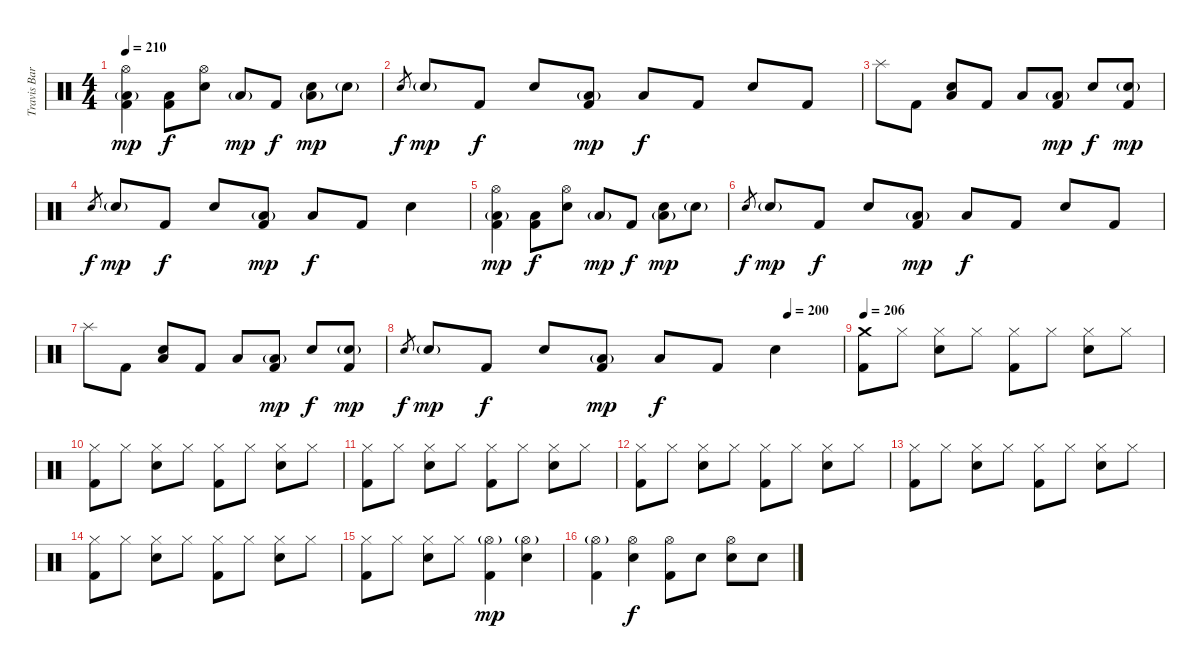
\track ("Travis Barker - Drums" "Travis Bar") {instrument percussion}
\staff {score}
\articulation defaults
\ts (4 4)
\tempo 210
\clef neutral
\ks c
("Hi-Hat (open)" "Low Floor Tom (hit)"{g} "Kick (hit) 2").4{dy mp} ("Low Floor Tom (hit)" "Kick (hit) 2").8{dy f} ("Hi-Hat (open)" "Electric Snare (hit)").8 "Low Floor Tom (hit)"{g}.8{dy mp} "Kick (hit) 2".8{dy f} ("Electric Snare (hit)" "Low Floor Tom (hit)"{g}).8{dy mp} "Electric Snare (hit)"{g}.8 |
"Electric Snare (hit)"{x}.8{gr dy f} "Electric Snare (hit)"{g}.8{dy mp} "Kick (hit) 2".8{dy f} "Electric Snare (hit)".8 ("Low Floor Tom (hit)"{g} "Kick (hit) 2").8{dy mp} "Low Floor Tom (hit)".8{dy f} "Kick (hit) 2".8 "Electric Snare (hit)".8 "Kick (hit) 2".8 |
"Splash (hit)".8 "Kick (hit) 2".8 ("Low Floor Tom (hit)" "Electric Snare (hit)").8 "Kick (hit) 2".8 "Low Floor Tom (hit)".8 ("Low Floor Tom (hit)"{g} "Kick (hit) 2").8{dy mp} "Electric Snare (hit)".8{dy f} ("Electric Snare (hit)"{g} "Kick (hit) 2").8{dy mp} |
"Electric Snare (hit)"{x}.8{gr dy f} "Electric Snare (hit)"{g}.8{dy mp} "Kick (hit) 2".8{dy f} "Electric Snare (hit)".8 ("Low Floor Tom (hit)"{g} "Kick (hit) 2").8{dy mp} "Low Floor Tom (hit)".8{dy f} "Kick (hit) 2".8 "Electric Snare (hit)".4 |
("Hi-Hat (open)" "Low Floor Tom (hit)"{g} "Kick (hit) 2").4{dy mp volume 12 balance 8} ("Low Floor Tom (hit)" "Kick (hit) 2").8{dy f} ("Hi-Hat (open)" "Electric Snare (hit)").8 "Low Floor Tom (hit)"{g}.8{dy mp} "Kick (hit) 2".8{dy f} ("Electric Snare (hit)" "Low Floor Tom (hit)"{g}).8{dy mp} "Electric Snare (hit)"{g}.8 |
"Electric Snare (hit)"{x}.8{gr dy f} "Electric Snare (hit)"{g}.8{dy mp} "Kick (hit) 2".8{dy f} "Electric Snare (hit)".8 ("Low Floor Tom (hit)"{g} "Kick (hit) 2").8{dy mp} "Low Floor Tom (hit)".8{dy f} "Kick (hit) 2".8 "Electric Snare (hit)".8 "Kick (hit) 2".8 |
"Splash (hit)".8 "Kick (hit) 2".8 ("Low Floor Tom (hit)" "Electric Snare (hit)").8 "Kick (hit) 2".8 "Low Floor Tom (hit)".8 ("Low Floor Tom (hit)"{g} "Kick (hit) 2").8{dy mp} "Electric Snare (hit)".8{dy f} ("Electric Snare (hit)"{g} "Kick (hit) 2").8{dy mp} |
\tempo (200 0.875)
"Electric Snare (hit)"{x}.8{gr dy f} "Electric Snare (hit)"{g}.8{dy mp} "Kick (hit) 2".8{dy f} "Electric Snare (hit)".8 ("Low Floor Tom (hit)"{g} "Kick (hit) 2").8{dy mp} "Low Floor Tom (hit)".8{dy f} "Kick (hit) 2".8 "Electric Snare (hit)".4 |
\tempo 206
("Crash medium (hit)" "Kick (hit) 2").8 "Hi-Hat (closed)".8 ("Hi-Hat (closed)" "Electric Snare (hit)").8 "Hi-Hat (closed)".8 ("Hi-Hat (closed)" "Kick (hit) 2").8 "Hi-Hat (closed)".8 ("Hi-Hat (closed)" "Electric Snare (hit)").8 "Hi-Hat (closed)".8 |
("Hi-Hat (closed)" "Kick (hit) 2").8 "Hi-Hat (closed)".8 ("Hi-Hat (closed)" "Electric Snare (hit)").8 "Hi-Hat (closed)".8 ("Hi-Hat (closed)" "Kick (hit) 2").8 "Hi-Hat (closed)".8 ("Hi-Hat (closed)" "Electric Snare (hit)").8 "Hi-Hat (closed)".8 |
("Hi-Hat (closed)" "Kick (hit) 2").8 "Hi-Hat (closed)".8 ("Hi-Hat (closed)" "Electric Snare (hit)").8 "Hi-Hat (closed)".8 ("Hi-Hat (closed)" "Kick (hit) 2").8 "Hi-Hat (closed)".8 ("Hi-Hat (closed)" "Electric Snare (hit)").8 "Hi-Hat (closed)".8 |
("Hi-Hat (closed)" "Kick (hit) 2").8 "Hi-Hat (closed)".8 ("Hi-Hat (closed)" "Electric Snare (hit)").8 "Hi-Hat (closed)".8 ("Hi-Hat (closed)" "Kick (hit) 2").8 "Hi-Hat (closed)".8 ("Hi-Hat (closed)" "Electric Snare (hit)").8 "Hi-Hat (closed)".8 |
("Hi-Hat (closed)" "Kick (hit) 2").8 "Hi-Hat (closed)".8 ("Hi-Hat (closed)" "Electric Snare (hit)").8 "Hi-Hat (closed)".8 ("Hi-Hat (closed)" "Kick (hit) 2").8 "Hi-Hat (closed)".8 ("Hi-Hat (closed)" "Electric Snare (hit)").8 "Hi-Hat (closed)".8 |
("Hi-Hat (closed)" "Kick (hit) 2").8 "Hi-Hat (closed)".8 ("Hi-Hat (closed)" "Electric Snare (hit)").8 "Hi-Hat (closed)".8 ("Hi-Hat (closed)" "Kick (hit) 2").8 "Hi-Hat (closed)".8 ("Hi-Hat (closed)" "Electric Snare (hit)").8 "Hi-Hat (closed)".8 |
("Hi-Hat (closed)" "Kick (hit) 2").8 "Hi-Hat (closed)".8 ("Hi-Hat (closed)" "Electric Snare (hit)").8 "Hi-Hat (closed)".8 ("Hi-Hat (open)"{g} "Kick (hit) 2").4{dy mp} ("Hi-Hat (open)"{g} "Electric Snare (hit)").4 |
("Hi-Hat (open)"{g} "Kick (hit) 2").4 ("Hi-Hat (open)" "Electric Snare (hit)").4{dy f} ("Hi-Hat (open)" "Kick (hit) 2").8 "Electric Snare (hit)".8 ("Hi-Hat (open)" "Electric Snare (hit)").8 "Electric Snare (hit)".8
